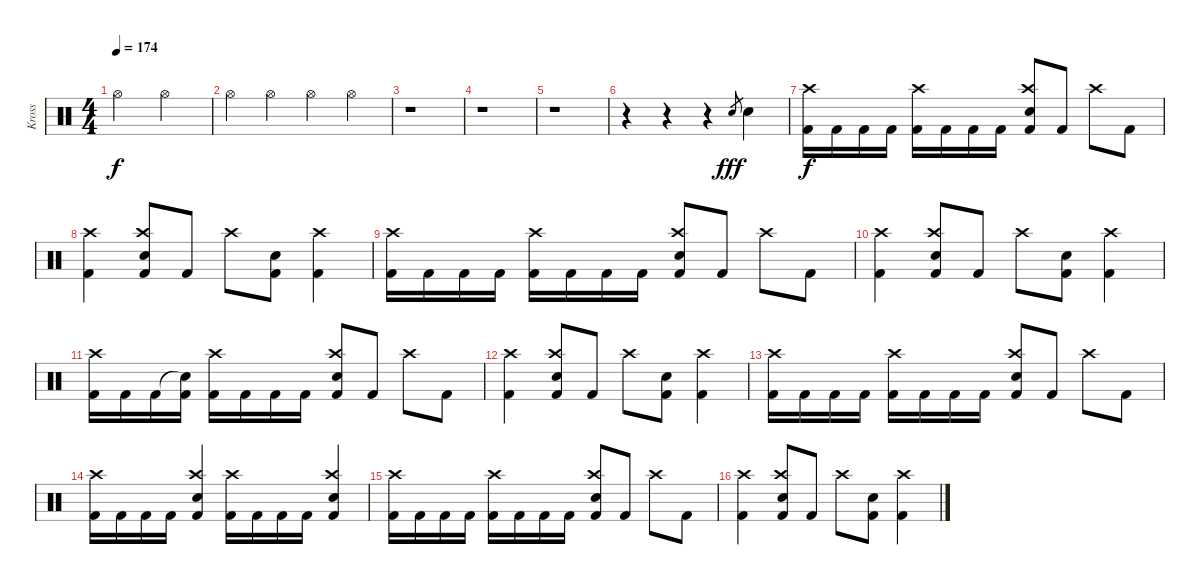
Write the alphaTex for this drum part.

\track ("Kross" "Kross") {instrument percussion}
\staff {score}
\articulation defaults
\ts (4 4)
\tempo 174
\clef neutral
\ks c "Hi-Hat (open)".2{dy f} "Hi-Hat (open)".2
|
"Hi-Hat (open)".4 "Hi-Hat (open)".4 "Hi-Hat (open)".4 "Hi-Hat (open)".4 |
r.1 |
r.1 |
r.1 |
r.4 r.4 r.4 "Electric Snare (hit)".8{gr dy fff} "Electric Snare (hit)".4 |
("Crash high (hit)" "Kick (hit) 2").16{dy f} "Kick (hit) 2".16 "Kick (hit) 2".16 "Kick (hit) 2".16 ("Crash high (hit)" "Kick (hit) 2").16 "Kick (hit) 2".16 "Kick (hit) 2".16 "Kick (hit) 2".16 ("Crash high (hit)" "Electric Snare (hit)" "Kick (hit) 2").8 "Kick (hit) 2".8 "Crash high (hit)".8 "Kick (hit) 2".8 |
("Crash high (hit)" "Kick (hit) 2").4 ("Crash high (hit)" "Electric Snare (hit)" "Kick (hit) 2").8 "Kick (hit) 2".8 "Crash high (hit)".8 ("Electric Snare (hit)" "Kick (hit) 2").8 ("Crash high (hit)" "Kick (hit) 2").4 |
("Crash high (hit)" "Kick (hit) 2").16 "Kick (hit) 2".16 "Kick (hit) 2".16 "Kick (hit) 2".16 ("Crash high (hit)" "Kick (hit) 2").16 "Kick (hit) 2".16 "Kick (hit) 2".16 "Kick (hit) 2".16 ("Crash high (hit)" "Electric Snare (hit)" "Kick (hit) 2").8 "Kick (hit) 2".8 "Crash high (hit)".8 "Kick (hit) 2".8 |
("Crash high (hit)" "Kick (hit) 2").4 ("Crash high (hit)" "Electric Snare (hit)" "Kick (hit) 2").8 "Kick (hit) 2".8 "Crash high (hit)".8 ("Electric Snare (hit)" "Kick (hit) 2").8 ("Crash high (hit)" "Kick (hit) 2").4 |
("Crash high (hit)" "Kick (hit) 2").16 "Kick (hit) 2".16 "Kick (hit) 2".16 ("Snare (hit)"{t} "Kick (hit) 2").16 ("Crash high (hit)" "Kick (hit) 2").16 "Kick (hit) 2".16 "Kick (hit) 2".16 "Kick (hit) 2".16 ("Crash high (hit)" "Electric Snare (hit)" "Kick (hit) 2").8 "Kick (hit) 2".8 "Crash high (hit)".8 "Kick (hit) 2".8 |
("Crash high (hit)" "Kick (hit) 2").4 ("Crash high (hit)" "Electric Snare (hit)" "Kick (hit) 2").8 "Kick (hit) 2".8 "Crash high (hit)".8 ("Electric Snare (hit)" "Kick (hit) 2").8 ("Crash high (hit)" "Kick (hit) 2").4 |
("Crash high (hit)" "Kick (hit) 2").16 "Kick (hit) 2".16 "Kick (hit) 2".16 "Kick (hit) 2".16 ("Crash high (hit)" "Kick (hit) 2").16 "Kick (hit) 2".16 "Kick (hit) 2".16 "Kick (hit) 2".16 ("Crash high (hit)" "Electric Snare (hit)" "Kick (hit) 2").8 "Kick (hit) 2".8 "Crash high (hit)".8 "Kick (hit) 2".8 |
("Crash high (hit)" "Kick (hit) 2").16 "Kick (hit) 2".16 "Kick (hit) 2".16 "Kick (hit) 2".16 ("Crash high (hit)" "Electric Snare (hit)" "Kick (hit) 2").4 ("Crash high (hit)" "Kick (hit) 2").16 "Kick (hit) 2".16 "Kick (hit) 2".16 "Kick (hit) 2".16 ("Crash high (hit)" "Electric Snare (hit)" "Kick (hit) 2").4 |
("Crash high (hit)" "Kick (hit) 2").16 "Kick (hit) 2".16 "Kick (hit) 2".16 "Kick (hit) 2".16 ("Crash high (hit)" "Kick (hit) 2").16 "Kick (hit) 2".16 "Kick (hit) 2".16 "Kick (hit) 2".16 ("Crash high (hit)" "Electric Snare (hit)" "Kick (hit) 2").8 "Kick (hit) 2".8 "Crash high (hit)".8 "Kick (hit) 2".8 |
("Crash high (hit)" "Kick (hit) 2").4 ("Crash high (hit)" "Electric Snare (hit)" "Kick (hit) 2").8 "Kick (hit) 2".8 "Crash high (hit)".8 ("Electric Snare (hit)" "Kick (hit) 2").8 ("Crash high (hit)" "Kick (hit) 2").4
